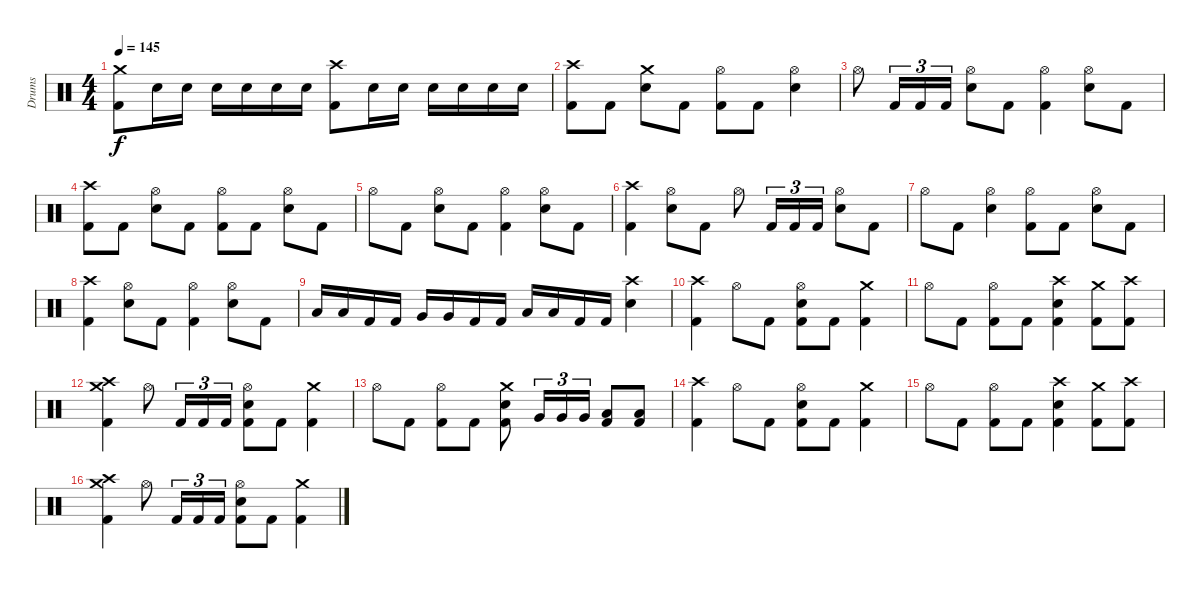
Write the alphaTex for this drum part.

\track ("Drums" "Drums") {instrument percussion}
\staff {score}
\articulation defaults
\ts (4 4)
\tempo 145
\clef neutral
\ks c
("Crash medium (hit)" "Kick (hit) 2").8{dy f} "Electric Snare (hit)".16 "Electric Snare (hit)".16 "Electric Snare (hit)".16 "Electric Snare (hit)".16 "Electric Snare (hit)".16 "Electric Snare (hit)".16 ("Crash high (hit)" "Kick (hit) 2").8 "Electric Snare (hit)".16 "Electric Snare (hit)".16 "Electric Snare (hit)".16 "Electric Snare (hit)".16 "Electric Snare (hit)".16 "Electric Snare (hit)".16 |
("Crash high (hit)" "Kick (hit) 2").8 "Kick (hit) 2".8 ("Crash medium (hit)" "Electric Snare (hit)").8 "Kick (hit) 2".8 ("Hi-Hat (open)" "Kick (hit) 2").8 "Kick (hit) 2".8 ("Hi-Hat (open)" "Electric Snare (hit)").4 |
"Hi-Hat (open)".8 "Kick (hit) 2".16{tu (3 2)} "Kick (hit) 2".16{tu (3 2)} "Kick (hit) 2".16{tu (3 2)} ("Hi-Hat (open)" "Electric Snare (hit)").8 "Kick (hit) 2".8 ("Hi-Hat (open)" "Kick (hit) 2").4 ("Hi-Hat (open)" "Electric Snare (hit)").8 "Kick (hit) 2".8 |
("Crash high (hit)" "Kick (hit) 2").8 "Kick (hit) 2".8 ("Hi-Hat (open)" "Electric Snare (hit)").8 "Kick (hit) 2".8 ("Hi-Hat (open)" "Kick (hit) 2").8 "Kick (hit) 2".8 ("Hi-Hat (open)" "Electric Snare (hit)").8 "Kick (hit) 2".8 |
"Hi-Hat (open)".8 "Kick (hit) 2".8 ("Hi-Hat (open)" "Electric Snare (hit)").8 "Kick (hit) 2".8 ("Hi-Hat (open)" "Kick (hit) 2").4 ("Hi-Hat (open)" "Electric Snare (hit)").8 "Kick (hit) 2".8 |
("Crash high (hit)" "Kick (hit) 2").4 ("Hi-Hat (open)" "Electric Snare (hit)").8 "Kick (hit) 2".8 "Hi-Hat (open)".8 "Kick (hit) 2".16{tu (3 2)} "Kick (hit) 2".16{tu (3 2)} "Kick (hit) 2".16{tu (3 2)} ("Hi-Hat (open)" "Electric Snare (hit)").8 "Kick (hit) 2".8 |
"Hi-Hat (open)".8 "Kick (hit) 2".8 ("Hi-Hat (open)" "Electric Snare (hit)").4 ("Hi-Hat (open)" "Kick (hit) 2").8 "Kick (hit) 2".8 ("Hi-Hat (open)" "Electric Snare (hit)").8 "Kick (hit) 2".8 |
("Crash high (hit)" "Kick (hit) 2").4 ("Hi-Hat (open)" "Electric Snare (hit)").8 "Kick (hit) 2".8 ("Hi-Hat (open)" "Kick (hit) 2").4 ("Hi-Hat (open)" "Electric Snare (hit)").8 "Kick (hit) 2".8 |
"Low Tom (hit)".16 "Low Tom (hit)".16 "Kick (hit) 2".16 "Kick (hit) 2".16 "Very Low Tom (hit)".16 "Very Low Tom (hit)".16 "Kick (hit) 2".16 "Kick (hit) 2".16 "Low Floor Tom (hit)".16 "Low Floor Tom (hit)".16 "Kick (hit) 2".16 "Kick (hit) 2".16 ("Crash high (hit)" "Electric Snare (hit)").4 |
("Crash high (hit)" "Kick (hit) 2").4 "Hi-Hat (open)".8 "Kick (hit) 2".8 ("Hi-Hat (open)" "Electric Snare (hit)" "Kick (hit) 2").8 "Kick (hit) 2".8 ("Crash medium (hit)" "Kick (hit) 2").4 |
"Hi-Hat (open)".8 "Kick (hit) 2".8 ("Hi-Hat (open)" "Kick (hit) 2").8 "Kick (hit) 2".8 ("Crash high (hit)" "Electric Snare (hit)" "Kick (hit) 2").4 ("Crash medium (hit)" "Kick (hit) 2").8 ("Crash high (hit)" "Kick (hit) 2").8 |
("Crash high (hit)" "Crash medium (hit)" "Kick (hit) 2").4 "Hi-Hat (open)".8 "Kick (hit) 2".16{tu (3 2)} "Kick (hit) 2".16{tu (3 2)} "Kick (hit) 2".16{tu (3 2)} ("Hi-Hat (open)" "Electric Snare (hit)" "Kick (hit) 2").8 "Kick (hit) 2".8 ("Crash medium (hit)" "Kick (hit) 2").4 |
"Hi-Hat (open)".8 "Kick (hit) 2".8 ("Hi-Hat (open)" "Kick (hit) 2").8 "Kick (hit) 2".8 ("Crash medium (hit)" "Electric Snare (hit)" "Kick (hit) 2").8 "Very Low Tom (hit)".16{tu (3 2)} "Very Low Tom (hit)".16{tu (3 2)} "Very Low Tom (hit)".16{tu (3 2)} ("Low Floor Tom (hit)" "Kick (hit) 2").8 ("Low Floor Tom (hit)" "Kick (hit) 2").8 |
("Crash high (hit)" "Kick (hit) 2").4 "Hi-Hat (open)".8 "Kick (hit) 2".8 ("Hi-Hat (open)" "Electric Snare (hit)" "Kick (hit) 2").8 "Kick (hit) 2".8 ("Crash medium (hit)" "Kick (hit) 2").4 |
"Hi-Hat (open)".8 "Kick (hit) 2".8 ("Hi-Hat (open)" "Kick (hit) 2").8 "Kick (hit) 2".8 ("Crash high (hit)" "Electric Snare (hit)" "Kick (hit) 2").4 ("Crash medium (hit)" "Kick (hit) 2").8 ("Crash high (hit)" "Kick (hit) 2").8 |
("Crash high (hit)" "Crash medium (hit)" "Kick (hit) 2").4 "Hi-Hat (open)".8 "Kick (hit) 2".16{tu (3 2)} "Kick (hit) 2".16{tu (3 2)} "Kick (hit) 2".16{tu (3 2)} ("Hi-Hat (open)" "Electric Snare (hit)" "Kick (hit) 2").8 "Kick (hit) 2".8 ("Crash medium (hit)" "Kick (hit) 2").4
